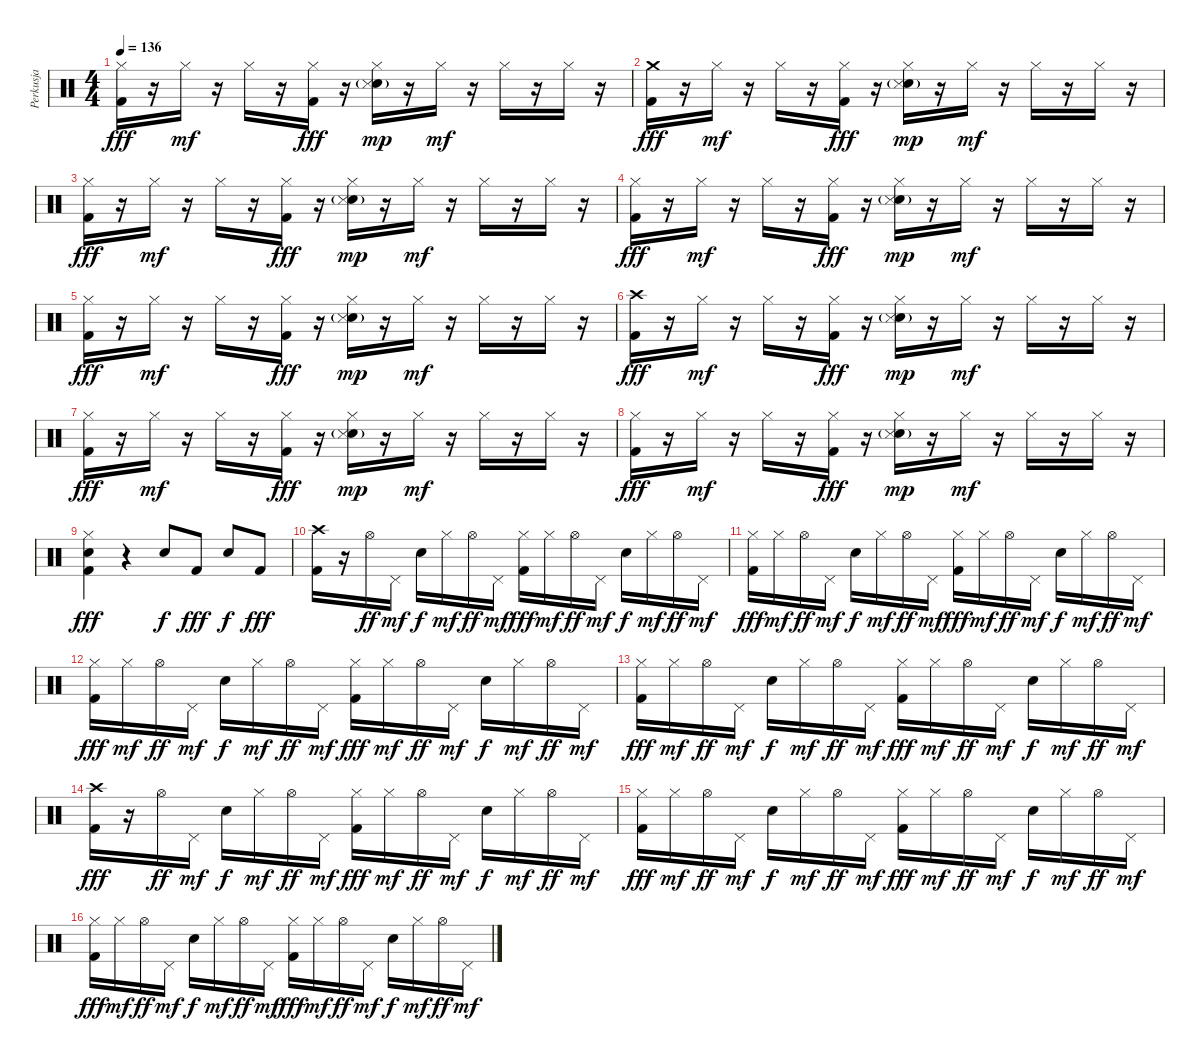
\track ("Perkusja" "Perkusja") {instrument percussion}
\staff {score}
\articulation defaults
\ts (4 4)
\tempo 136
\clef neutral
\ks c
("Hi-Hat (closed)" "Kick (hit) 2").16{dy fff} r.16 "Hi-Hat (closed)".16{dy mf} r.16 "Hi-Hat (closed)".16 r.16 ("Hi-Hat (closed)" "Kick (hit) 2").16{dy fff} r.16 ("Hi-Hat (closed)" "Snare (hit) 2"{g} "Snare (side stick) 3").16{dy mp} r.16 "Hi-Hat (closed)".16{dy mf} r.16 "Hi-Hat (closed)".16 r.16 "Hi-Hat (closed)".16 r.16 |
("Crash medium (hit)" "Kick (hit) 2").16{dy fff} r.16 "Hi-Hat (closed)".16{dy mf} r.16 "Hi-Hat (closed)".16 r.16 ("Hi-Hat (closed)" "Kick (hit) 2").16{dy fff} r.16 ("Hi-Hat (closed)" "Snare (hit) 2"{g} "Snare (side stick) 3").16{dy mp} r.16 "Hi-Hat (closed)".16{dy mf} r.16 "Hi-Hat (closed)".16 r.16 "Hi-Hat (closed)".16 r.16 |
("Hi-Hat (closed)" "Kick (hit) 2").16{dy fff} r.16 "Hi-Hat (closed)".16{dy mf} r.16 "Hi-Hat (closed)".16 r.16 ("Hi-Hat (closed)" "Kick (hit) 2").16{dy fff} r.16 ("Hi-Hat (closed)" "Snare (hit) 2"{g} "Snare (side stick) 3").16{dy mp} r.16 "Hi-Hat (closed)".16{dy mf} r.16 "Hi-Hat (closed)".16 r.16 "Hi-Hat (closed)".16 r.16 |
("Hi-Hat (closed)" "Kick (hit) 2").16{dy fff} r.16 "Hi-Hat (closed)".16{dy mf} r.16 "Hi-Hat (closed)".16 r.16 ("Hi-Hat (closed)" "Kick (hit) 2").16{dy fff} r.16 ("Hi-Hat (closed)" "Snare (hit) 2"{g} "Snare (side stick) 3").16{dy mp} r.16 "Hi-Hat (closed)".16{dy mf} r.16 "Hi-Hat (closed)".16 r.16 "Hi-Hat (closed)".16 r.16 |
("Hi-Hat (closed)" "Kick (hit) 2").16{dy fff} r.16 "Hi-Hat (closed)".16{dy mf} r.16 "Hi-Hat (closed)".16 r.16 ("Hi-Hat (closed)" "Kick (hit) 2").16{dy fff} r.16 ("Hi-Hat (closed)" "Snare (hit) 2"{g} "Snare (side stick) 3").16{dy mp} r.16 "Hi-Hat (closed)".16{dy mf} r.16 "Hi-Hat (closed)".16 r.16 "Hi-Hat (closed)".16 r.16 |
("Crash high (hit)" "Kick (hit) 2").16{dy fff} r.16 "Hi-Hat (closed)".16{dy mf} r.16 "Hi-Hat (closed)".16 r.16 ("Hi-Hat (closed)" "Kick (hit) 2").16{dy fff} r.16 ("Hi-Hat (closed)" "Snare (hit) 2"{g} "Snare (side stick) 3").16{dy mp} r.16 "Hi-Hat (closed)".16{dy mf} r.16 "Hi-Hat (closed)".16 r.16 "Hi-Hat (closed)".16 r.16 |
("Hi-Hat (closed)" "Kick (hit) 2").16{dy fff} r.16 "Hi-Hat (closed)".16{dy mf} r.16 "Hi-Hat (closed)".16 r.16 ("Hi-Hat (closed)" "Kick (hit) 2").16{dy fff} r.16 ("Hi-Hat (closed)" "Snare (hit) 2"{g} "Snare (side stick) 3").16{dy mp} r.16 "Hi-Hat (closed)".16{dy mf} r.16 "Hi-Hat (closed)".16 r.16 "Hi-Hat (closed)".16 r.16 |
("Hi-Hat (closed)" "Kick (hit) 2").16{dy fff} r.16 "Hi-Hat (closed)".16{dy mf} r.16 "Hi-Hat (closed)".16 r.16 ("Hi-Hat (closed)" "Kick (hit) 2").16{dy fff} r.16 ("Hi-Hat (closed)" "Snare (hit) 2"{g} "Snare (side stick) 3").16{dy mp} r.16 "Hi-Hat (closed)".16{dy mf} r.16 "Hi-Hat (closed)".16 r.16 "Hi-Hat (closed)".16 r.16 |
("Hi-Hat (closed)" "Snare (hit) 2" "Kick (hit) 2").4{dy fff} r.4 "Snare (hit) 2".8{dy f} "Kick (hit) 2".8{dy fff} "Snare (hit) 2".8{dy f} "Kick (hit) 2".8{dy fff} |
("Crash high (hit)" "Kick (hit) 2").16 r.16 "Hi-Hat (open)".16{dy ff} "Pedal Hi-Hat (hit)".16{dy mf} "Snare (hit) 2".16{dy f} "Hi-Hat (closed)".16{dy mf} "Hi-Hat (open)".16{dy ff} "Pedal Hi-Hat (hit)".16{dy mf} ("Hi-Hat (closed)" "Kick (hit) 2").16{dy fff} "Hi-Hat (closed)".16{dy mf} "Hi-Hat (open)".16{dy ff} "Pedal Hi-Hat (hit)".16{dy mf} "Snare (hit) 2".16{dy f} "Hi-Hat (closed)".16{dy mf} "Hi-Hat (open)".16{dy ff} "Pedal Hi-Hat (hit)".16{dy mf} |
("Hi-Hat (closed)" "Kick (hit) 2").16{dy fff} "Hi-Hat (closed)".16{dy mf} "Hi-Hat (open)".16{dy ff} "Pedal Hi-Hat (hit)".16{dy mf} "Snare (hit) 2".16{dy f} "Hi-Hat (closed)".16{dy mf} "Hi-Hat (open)".16{dy ff} "Pedal Hi-Hat (hit)".16{dy mf} ("Hi-Hat (closed)" "Kick (hit) 2").16{dy fff} "Hi-Hat (closed)".16{dy mf} "Hi-Hat (open)".16{dy ff} "Pedal Hi-Hat (hit)".16{dy mf} "Snare (hit) 2".16{dy f} "Hi-Hat (closed)".16{dy mf} "Hi-Hat (open)".16{dy ff} "Pedal Hi-Hat (hit)".16{dy mf} |
("Hi-Hat (closed)" "Kick (hit) 2").16{dy fff} "Hi-Hat (closed)".16{dy mf} "Hi-Hat (open)".16{dy ff} "Pedal Hi-Hat (hit)".16{dy mf} "Snare (hit) 2".16{dy f} "Hi-Hat (closed)".16{dy mf} "Hi-Hat (open)".16{dy ff} "Pedal Hi-Hat (hit)".16{dy mf} ("Hi-Hat (closed)" "Kick (hit) 2").16{dy fff} "Hi-Hat (closed)".16{dy mf} "Hi-Hat (open)".16{dy ff} "Pedal Hi-Hat (hit)".16{dy mf} "Snare (hit) 2".16{dy f} "Hi-Hat (closed)".16{dy mf} "Hi-Hat (open)".16{dy ff} "Pedal Hi-Hat (hit)".16{dy mf} |
("Hi-Hat (closed)" "Kick (hit) 2").16{dy fff} "Hi-Hat (closed)".16{dy mf} "Hi-Hat (open)".16{dy ff} "Pedal Hi-Hat (hit)".16{dy mf} "Snare (hit) 2".16{dy f} "Hi-Hat (closed)".16{dy mf} "Hi-Hat (open)".16{dy ff} "Pedal Hi-Hat (hit)".16{dy mf} ("Hi-Hat (closed)" "Kick (hit) 2").16{dy fff} "Hi-Hat (closed)".16{dy mf} "Hi-Hat (open)".16{dy ff} "Pedal Hi-Hat (hit)".16{dy mf} "Snare (hit) 2".16{dy f} "Hi-Hat (closed)".16{dy mf} "Hi-Hat (open)".16{dy ff} "Pedal Hi-Hat (hit)".16{dy mf} |
("Crash high (hit)" "Kick (hit) 2").16{dy fff} r.16 "Hi-Hat (open)".16{dy ff} "Pedal Hi-Hat (hit)".16{dy mf} "Snare (hit) 2".16{dy f} "Hi-Hat (closed)".16{dy mf} "Hi-Hat (open)".16{dy ff} "Pedal Hi-Hat (hit)".16{dy mf} ("Hi-Hat (closed)" "Kick (hit) 2").16{dy fff} "Hi-Hat (closed)".16{dy mf} "Hi-Hat (open)".16{dy ff} "Pedal Hi-Hat (hit)".16{dy mf} "Snare (hit) 2".16{dy f} "Hi-Hat (closed)".16{dy mf} "Hi-Hat (open)".16{dy ff} "Pedal Hi-Hat (hit)".16{dy mf} |
("Hi-Hat (closed)" "Kick (hit) 2").16{dy fff} "Hi-Hat (closed)".16{dy mf} "Hi-Hat (open)".16{dy ff} "Pedal Hi-Hat (hit)".16{dy mf} "Snare (hit) 2".16{dy f} "Hi-Hat (closed)".16{dy mf} "Hi-Hat (open)".16{dy ff} "Pedal Hi-Hat (hit)".16{dy mf} ("Hi-Hat (closed)" "Kick (hit) 2").16{dy fff} "Hi-Hat (closed)".16{dy mf} "Hi-Hat (open)".16{dy ff} "Pedal Hi-Hat (hit)".16{dy mf} "Snare (hit) 2".16{dy f} "Hi-Hat (closed)".16{dy mf} "Hi-Hat (open)".16{dy ff} "Pedal Hi-Hat (hit)".16{dy mf} |
("Hi-Hat (closed)" "Kick (hit) 2").16{dy fff} "Hi-Hat (closed)".16{dy mf} "Hi-Hat (open)".16{dy ff} "Pedal Hi-Hat (hit)".16{dy mf} "Snare (hit) 2".16{dy f} "Hi-Hat (closed)".16{dy mf} "Hi-Hat (open)".16{dy ff} "Pedal Hi-Hat (hit)".16{dy mf} ("Hi-Hat (closed)" "Kick (hit) 2").16{dy fff} "Hi-Hat (closed)".16{dy mf} "Hi-Hat (open)".16{dy ff} "Pedal Hi-Hat (hit)".16{dy mf} "Snare (hit) 2".16{dy f} "Hi-Hat (closed)".16{dy mf} "Hi-Hat (open)".16{dy ff} "Pedal Hi-Hat (hit)".16{dy mf}
